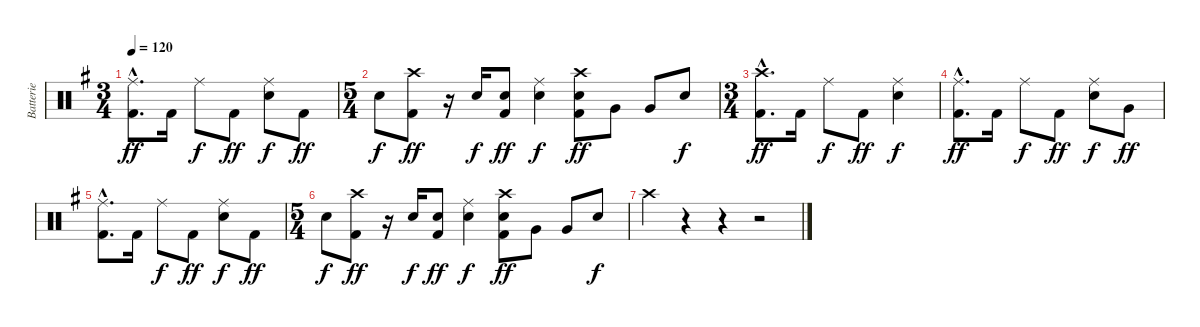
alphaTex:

\track ("Batterie" "Batterie") {instrument percussion}
\staff {score}
\articulation defaults
\ts (3 4)
\tempo 120
\clef neutral
\ks g
("Ride (middle)"{hac} "Kick (hit) 2"{hac}).8{d dy ff} "Kick (hit) 2".16 "Ride (middle)".8{dy f} "Kick (hit) 2".8{dy ff} ("Ride (middle)" "Snare (hit) 2").8{dy f} "Kick (hit) 2".8{dy ff} |
\ts (5 4)
"Snare (hit) 2".8{dy f} ("Crash high (hit)" "Kick (hit) 2").8{dy ff} r.16 "Snare (hit) 2".16{dy f} ("Snare (hit) 2" "Kick (hit) 2").8{dy ff} ("Ride (middle)" "Snare (hit) 2").4{dy f} ("Crash high (hit)" "Snare (hit) 2" "Kick (hit) 2").8{dy ff} "Very Low Tom (hit)".8 "Very Low Tom (hit)".8 "Snare (hit) 2".8{dy f} |
\ts (3 4)
("Crash high (hit)"{hac} "Kick (hit) 2"{hac}).8{d dy ff} "Kick (hit) 2".16 "Ride (middle)".8{dy f} "Kick (hit) 2".8{dy ff} ("Ride (middle)" "Snare (hit) 2").4{dy f} |
("Ride (middle)"{hac} "Kick (hit) 2"{hac}).8{d dy ff} "Kick (hit) 2".16 "Ride (middle)".8{dy f} "Kick (hit) 2".8{dy ff} ("Ride (middle)" "Snare (hit) 2").8{dy f} "Very Low Tom (hit)".8{dy ff} |
("Ride (middle)"{hac} "Kick (hit) 2"{hac}).8{d} "Kick (hit) 2".16 "Ride (middle)".8{dy f} "Kick (hit) 2".8{dy ff} ("Ride (middle)" "Snare (hit) 2").8{dy f} "Kick (hit) 2".8{dy ff} |
\ts (5 4)
"Snare (hit) 2".8{dy f} ("Crash high (hit)" "Kick (hit) 2").8{dy ff} r.16 "Snare (hit) 2".16{dy f} ("Snare (hit) 2" "Kick (hit) 2").8{dy ff} ("Ride (middle)" "Snare (hit) 2").4{dy f} ("Crash high (hit)" "Snare (hit) 2" "Kick (hit) 2").8{dy ff} "Very Low Tom (hit)".8 "Very Low Tom (hit)".8 "Snare (hit) 2".8{dy f} |
"Crash high (hit)".4 r.4 r.4 r.2
